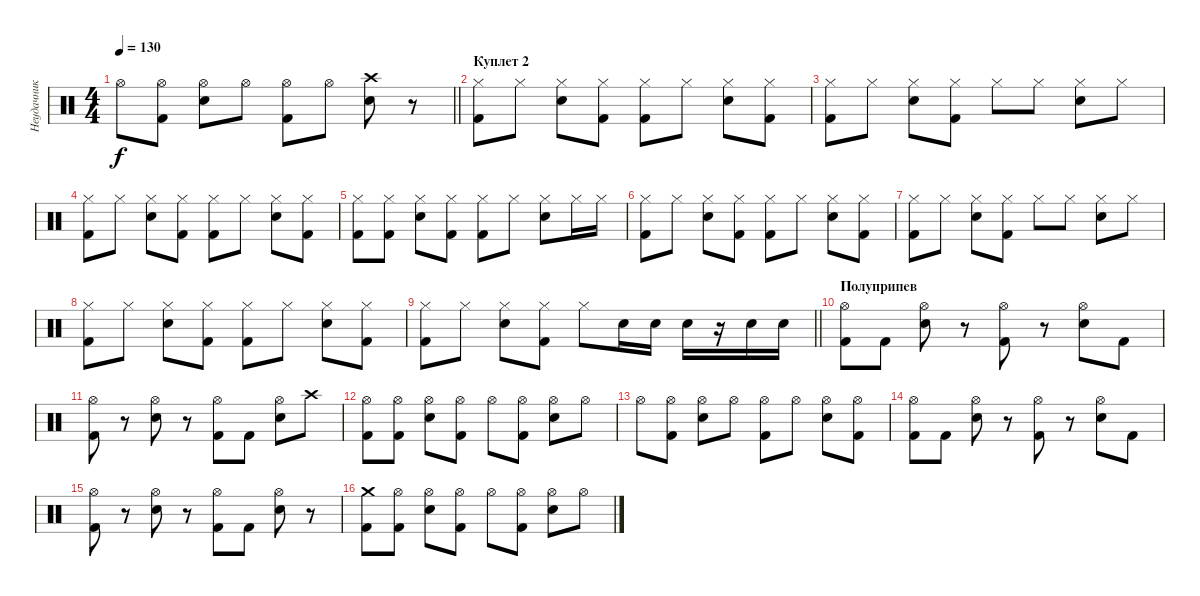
\track ("Неудачник" "Неудачник") {instrument percussion}
\staff {score}
\articulation defaults
\ts (4 4)
\tempo 130
\clef neutral
\barLineRight lightlight
\ks c "Hi-Hat (open)".8{dy f}
("Hi-Hat (open)" "Kick (hit) 2").8 ("Hi-Hat (open)" "Electric Snare (hit)").8 "Hi-Hat (open)".8 ("Hi-Hat (open)" "Kick (hit) 2").8 "Hi-Hat (open)".8 ("Crash high (hit)" "Electric Snare (hit)").8 r.8 |
\section ("" "Куплет 2")
("Hi-Hat (closed)" "Kick (hit) 2").8 "Hi-Hat (closed)".8 ("Hi-Hat (closed)" "Electric Snare (hit)").8 ("Hi-Hat (closed)" "Kick (hit) 2").8 ("Hi-Hat (closed)" "Kick (hit) 2").8 "Hi-Hat (closed)".8 ("Hi-Hat (closed)" "Electric Snare (hit)").8 ("Hi-Hat (closed)" "Kick (hit) 2").8 |
("Hi-Hat (closed)" "Kick (hit) 2").8 "Hi-Hat (closed)".8 ("Hi-Hat (closed)" "Electric Snare (hit)").8 ("Hi-Hat (closed)" "Kick (hit) 2").8 "Hi-Hat (closed)".8 "Hi-Hat (closed)".8 ("Hi-Hat (closed)" "Electric Snare (hit)").8 "Hi-Hat (closed)".8 |
("Hi-Hat (closed)" "Kick (hit) 2").8 "Hi-Hat (closed)".8 ("Hi-Hat (closed)" "Electric Snare (hit)").8 ("Hi-Hat (closed)" "Kick (hit) 2").8 ("Hi-Hat (closed)" "Kick (hit) 2").8 "Hi-Hat (closed)".8 ("Hi-Hat (closed)" "Electric Snare (hit)").8 ("Hi-Hat (closed)" "Kick (hit) 2").8 |
("Hi-Hat (closed)" "Kick (hit) 2").8 ("Hi-Hat (closed)" "Kick (hit) 2").8 ("Hi-Hat (closed)" "Electric Snare (hit)").8 ("Hi-Hat (closed)" "Kick (hit) 2").8 ("Hi-Hat (closed)" "Kick (hit) 2").8 "Hi-Hat (closed)".8 ("Hi-Hat (closed)" "Electric Snare (hit)").8 "Hi-Hat (closed)".16 "Hi-Hat (closed)".16 |
("Hi-Hat (closed)" "Kick (hit) 2").8 "Hi-Hat (closed)".8 ("Hi-Hat (closed)" "Electric Snare (hit)").8 ("Hi-Hat (closed)" "Kick (hit) 2").8 ("Hi-Hat (closed)" "Kick (hit) 2").8 "Hi-Hat (closed)".8 ("Hi-Hat (closed)" "Electric Snare (hit)").8 ("Hi-Hat (closed)" "Kick (hit) 2").8 |
("Hi-Hat (closed)" "Kick (hit) 2").8 "Hi-Hat (closed)".8 ("Hi-Hat (closed)" "Electric Snare (hit)").8 ("Hi-Hat (closed)" "Kick (hit) 2").8 "Hi-Hat (closed)".8 "Hi-Hat (closed)".8 ("Hi-Hat (closed)" "Electric Snare (hit)").8 "Hi-Hat (closed)".8 |
("Hi-Hat (closed)" "Kick (hit) 2").8 "Hi-Hat (closed)".8 ("Hi-Hat (closed)" "Electric Snare (hit)").8 ("Hi-Hat (closed)" "Kick (hit) 2").8 ("Hi-Hat (closed)" "Kick (hit) 2").8 "Hi-Hat (closed)".8 ("Hi-Hat (closed)" "Electric Snare (hit)").8 ("Hi-Hat (closed)" "Kick (hit) 2").8 |
\barLineRight lightlight
("Hi-Hat (closed)" "Kick (hit) 2").8 "Hi-Hat (closed)".8 ("Hi-Hat (closed)" "Electric Snare (hit)").8 ("Hi-Hat (closed)" "Kick (hit) 2").8 "Hi-Hat (closed)".8 "Electric Snare (hit)".16 "Electric Snare (hit)".16 "Electric Snare (hit)".16 r.16 "Electric Snare (hit)".16 "Electric Snare (hit)".16 |
\section ("" "Полуприпев")
("Hi-Hat (open)" "Kick (hit) 2").8 "Kick (hit) 2".8 ("Hi-Hat (open)" "Electric Snare (hit)").8 r.8 ("Hi-Hat (open)" "Kick (hit) 2").8 r.8 ("Hi-Hat (open)" "Electric Snare (hit)").8 "Kick (hit) 2".8 |
("Hi-Hat (open)" "Kick (hit) 2").8 r.8 ("Hi-Hat (open)" "Electric Snare (hit)").8 r.8 ("Hi-Hat (open)" "Kick (hit) 2").8 "Kick (hit) 2".8 ("Hi-Hat (open)" "Electric Snare (hit)").8 "Crash high (hit)".8 |
("Hi-Hat (open)" "Kick (hit) 2").8 ("Hi-Hat (open)" "Kick (hit) 2").8 ("Hi-Hat (open)" "Electric Snare (hit)").8 ("Hi-Hat (open)" "Kick (hit) 2").8 "Hi-Hat (open)".8 ("Hi-Hat (open)" "Kick (hit) 2").8 ("Hi-Hat (open)" "Electric Snare (hit)").8 "Hi-Hat (open)".8 |
"Hi-Hat (open)".8 ("Hi-Hat (open)" "Kick (hit) 2").8 ("Hi-Hat (open)" "Electric Snare (hit)").8 "Hi-Hat (open)".8 ("Hi-Hat (open)" "Kick (hit) 2").8 "Hi-Hat (open)".8 ("Hi-Hat (open)" "Electric Snare (hit)").8 ("Hi-Hat (open)" "Kick (hit) 2").8 |
("Hi-Hat (open)" "Kick (hit) 2").8 "Kick (hit) 2".8 ("Hi-Hat (open)" "Electric Snare (hit)").8 r.8 ("Hi-Hat (open)" "Kick (hit) 2").8 r.8 ("Hi-Hat (open)" "Electric Snare (hit)").8 "Kick (hit) 2".8 |
("Hi-Hat (open)" "Kick (hit) 2").8 r.8 ("Hi-Hat (open)" "Electric Snare (hit)").8 r.8 ("Hi-Hat (open)" "Kick (hit) 2").8 "Kick (hit) 2".8 ("Hi-Hat (open)" "Electric Snare (hit)").8 r.8 |
("Crash medium (hit)" "Kick (hit) 2").8 ("Hi-Hat (open)" "Kick (hit) 2").8 ("Hi-Hat (open)" "Electric Snare (hit)").8 ("Hi-Hat (open)" "Kick (hit) 2").8 "Hi-Hat (open)".8 ("Hi-Hat (open)" "Kick (hit) 2").8 ("Hi-Hat (open)" "Electric Snare (hit)").8 "Hi-Hat (open)".8
